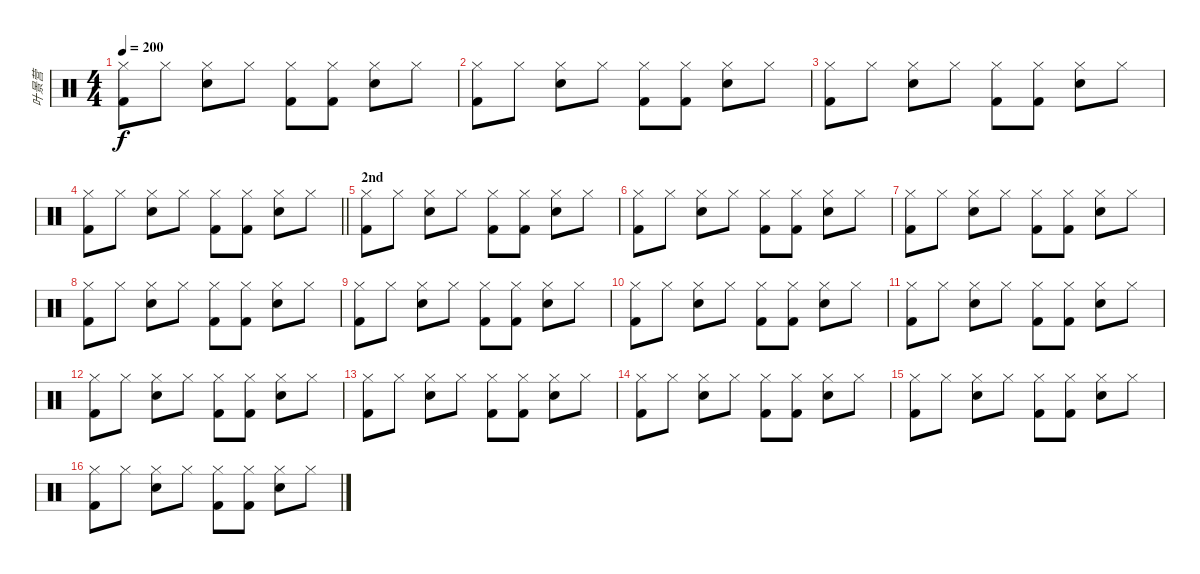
\track ("叶景营" "叶景营") {instrument percussion}
\staff {score}
\articulation defaults
\ts (4 4)
\tempo 200
\clef neutral
\ks c
("Hi-Hat (closed)" "Kick (hit) 2").8{dy f} "Hi-Hat (closed)".8 ("Hi-Hat (closed)" "Electric Snare (hit)").8 "Hi-Hat (closed)".8 ("Hi-Hat (closed)" "Kick (hit) 2").8 ("Hi-Hat (closed)" "Kick (hit) 2").8 ("Hi-Hat (closed)" "Electric Snare (hit)").8 "Hi-Hat (closed)".8 |
("Hi-Hat (closed)" "Kick (hit) 2").8 "Hi-Hat (closed)".8 ("Hi-Hat (closed)" "Electric Snare (hit)").8 "Hi-Hat (closed)".8 ("Hi-Hat (closed)" "Kick (hit) 2").8 ("Hi-Hat (closed)" "Kick (hit) 2").8 ("Hi-Hat (closed)" "Electric Snare (hit)").8 "Hi-Hat (closed)".8 |
("Hi-Hat (closed)" "Kick (hit) 2").8 "Hi-Hat (closed)".8 ("Hi-Hat (closed)" "Electric Snare (hit)").8 "Hi-Hat (closed)".8 ("Hi-Hat (closed)" "Kick (hit) 2").8 ("Hi-Hat (closed)" "Kick (hit) 2").8 ("Hi-Hat (closed)" "Electric Snare (hit)").8 "Hi-Hat (closed)".8 |
\barLineRight lightlight
("Hi-Hat (closed)" "Kick (hit) 2").8 "Hi-Hat (closed)".8 ("Hi-Hat (closed)" "Electric Snare (hit)").8 "Hi-Hat (closed)".8 ("Hi-Hat (closed)" "Kick (hit) 2").8 ("Hi-Hat (closed)" "Kick (hit) 2").8 ("Hi-Hat (closed)" "Electric Snare (hit)").8 "Hi-Hat (closed)".8 |
\section ("" "2nd")
("Hi-Hat (closed)" "Kick (hit) 2").8 "Hi-Hat (closed)".8 ("Hi-Hat (closed)" "Electric Snare (hit)").8 "Hi-Hat (closed)".8 ("Hi-Hat (closed)" "Kick (hit) 2").8 ("Hi-Hat (closed)" "Kick (hit) 2").8 ("Hi-Hat (closed)" "Electric Snare (hit)").8 "Hi-Hat (closed)".8 |
("Hi-Hat (closed)" "Kick (hit) 2").8 "Hi-Hat (closed)".8 ("Hi-Hat (closed)" "Electric Snare (hit)").8 "Hi-Hat (closed)".8 ("Hi-Hat (closed)" "Kick (hit) 2").8 ("Hi-Hat (closed)" "Kick (hit) 2").8 ("Hi-Hat (closed)" "Electric Snare (hit)").8 "Hi-Hat (closed)".8 |
("Hi-Hat (closed)" "Kick (hit) 2").8 "Hi-Hat (closed)".8 ("Hi-Hat (closed)" "Electric Snare (hit)").8 "Hi-Hat (closed)".8 ("Hi-Hat (closed)" "Kick (hit) 2").8 ("Hi-Hat (closed)" "Kick (hit) 2").8 ("Hi-Hat (closed)" "Electric Snare (hit)").8 "Hi-Hat (closed)".8 |
("Hi-Hat (closed)" "Kick (hit) 2").8 "Hi-Hat (closed)".8 ("Hi-Hat (closed)" "Electric Snare (hit)").8 "Hi-Hat (closed)".8 ("Hi-Hat (closed)" "Kick (hit) 2").8 ("Hi-Hat (closed)" "Kick (hit) 2").8 ("Hi-Hat (closed)" "Electric Snare (hit)").8 "Hi-Hat (closed)".8 |
("Hi-Hat (closed)" "Kick (hit) 2").8 "Hi-Hat (closed)".8 ("Hi-Hat (closed)" "Electric Snare (hit)").8 "Hi-Hat (closed)".8 ("Hi-Hat (closed)" "Kick (hit) 2").8 ("Hi-Hat (closed)" "Kick (hit) 2").8 ("Hi-Hat (closed)" "Electric Snare (hit)").8 "Hi-Hat (closed)".8 |
("Hi-Hat (closed)" "Kick (hit) 2").8 "Hi-Hat (closed)".8 ("Hi-Hat (closed)" "Electric Snare (hit)").8 "Hi-Hat (closed)".8 ("Hi-Hat (closed)" "Kick (hit) 2").8 ("Hi-Hat (closed)" "Kick (hit) 2").8 ("Hi-Hat (closed)" "Electric Snare (hit)").8 "Hi-Hat (closed)".8 |
("Hi-Hat (closed)" "Kick (hit) 2").8 "Hi-Hat (closed)".8 ("Hi-Hat (closed)" "Electric Snare (hit)").8 "Hi-Hat (closed)".8 ("Hi-Hat (closed)" "Kick (hit) 2").8 ("Hi-Hat (closed)" "Kick (hit) 2").8 ("Hi-Hat (closed)" "Electric Snare (hit)").8 "Hi-Hat (closed)".8 |
("Hi-Hat (closed)" "Kick (hit) 2").8 "Hi-Hat (closed)".8 ("Hi-Hat (closed)" "Electric Snare (hit)").8 "Hi-Hat (closed)".8 ("Hi-Hat (closed)" "Kick (hit) 2").8 ("Hi-Hat (closed)" "Kick (hit) 2").8 ("Hi-Hat (closed)" "Electric Snare (hit)").8 "Hi-Hat (closed)".8 |
("Hi-Hat (closed)" "Kick (hit) 2").8 "Hi-Hat (closed)".8 ("Hi-Hat (closed)" "Electric Snare (hit)").8 "Hi-Hat (closed)".8 ("Hi-Hat (closed)" "Kick (hit) 2").8 ("Hi-Hat (closed)" "Kick (hit) 2").8 ("Hi-Hat (closed)" "Electric Snare (hit)").8 "Hi-Hat (closed)".8 |
("Hi-Hat (closed)" "Kick (hit) 2").8 "Hi-Hat (closed)".8 ("Hi-Hat (closed)" "Electric Snare (hit)").8 "Hi-Hat (closed)".8 ("Hi-Hat (closed)" "Kick (hit) 2").8 ("Hi-Hat (closed)" "Kick (hit) 2").8 ("Hi-Hat (closed)" "Electric Snare (hit)").8 "Hi-Hat (closed)".8 |
("Hi-Hat (closed)" "Kick (hit) 2").8 "Hi-Hat (closed)".8 ("Hi-Hat (closed)" "Electric Snare (hit)").8 "Hi-Hat (closed)".8 ("Hi-Hat (closed)" "Kick (hit) 2").8 ("Hi-Hat (closed)" "Kick (hit) 2").8 ("Hi-Hat (closed)" "Electric Snare (hit)").8 "Hi-Hat (closed)".8 |
("Hi-Hat (closed)" "Kick (hit) 2").8 "Hi-Hat (closed)".8 ("Hi-Hat (closed)" "Electric Snare (hit)").8 "Hi-Hat (closed)".8 ("Hi-Hat (closed)" "Kick (hit) 2").8 ("Hi-Hat (closed)" "Kick (hit) 2").8 ("Hi-Hat (closed)" "Electric Snare (hit)").8 "Hi-Hat (closed)".8
